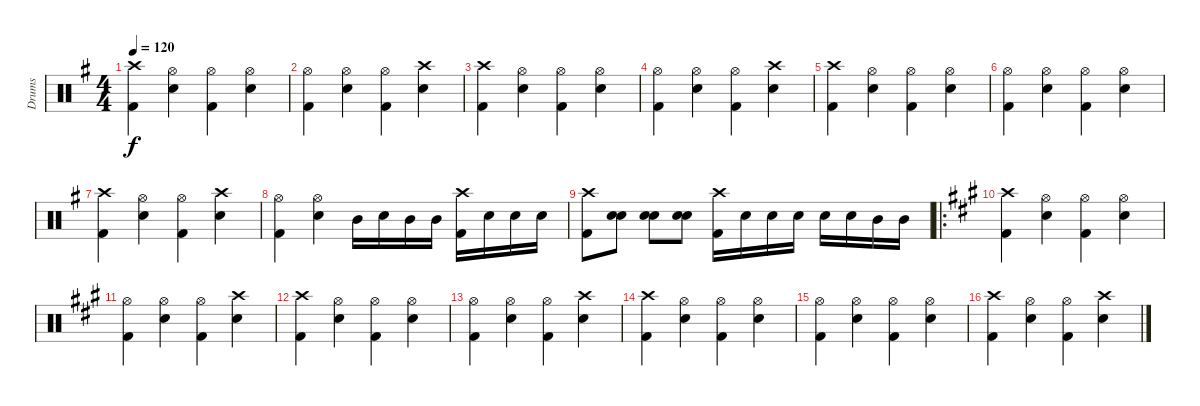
\track ("Drums" "Drums") {instrument percussion}
\staff {score}
\articulation defaults
\ts (4 4)
\tempo 120
\clef neutral
\ks g
("Crash high (hit)" "Kick (hit) 2").4{dy f} ("Hi-Hat (open)" "Snare (hit) 2").4 ("Hi-Hat (open)" "Kick (hit) 2").4 ("Hi-Hat (open)" "Snare (hit) 2").4 |
("Hi-Hat (open)" "Kick (hit) 2").4 ("Hi-Hat (open)" "Snare (hit) 2").4 ("Hi-Hat (open)" "Kick (hit) 2").4 ("Crash high (hit)" "Snare (hit) 2").4 |
("Crash high (hit)" "Kick (hit) 2").4 ("Hi-Hat (open)" "Snare (hit) 2").4 ("Hi-Hat (open)" "Kick (hit) 2").4 ("Hi-Hat (open)" "Snare (hit) 2").4 |
("Hi-Hat (open)" "Kick (hit) 2").4 ("Hi-Hat (open)" "Snare (hit) 2").4 ("Hi-Hat (open)" "Kick (hit) 2").4 ("Crash high (hit)" "Snare (hit) 2").4 |
("Crash high (hit)" "Kick (hit) 2").4 ("Hi-Hat (open)" "Snare (hit) 2").4 ("Hi-Hat (open)" "Kick (hit) 2").4 ("Hi-Hat (open)" "Snare (hit) 2").4 |
("Hi-Hat (open)" "Kick (hit) 2").4 ("Hi-Hat (open)" "Snare (hit) 2").4 ("Hi-Hat (open)" "Kick (hit) 2").4 ("Hi-Hat (open)" "Snare (hit) 2").4 |
("Crash high (hit)" "Kick (hit) 2").4 ("Hi-Hat (open)" "Snare (hit) 2").4 ("Hi-Hat (open)" "Kick (hit) 2").4 ("Crash high (hit)" "Snare (hit) 2").4 |
("Hi-Hat (open)" "Kick (hit) 2").4 ("Hi-Hat (open)" "Snare (hit) 2").4 "Mid Tom (hit)".16 "Snare (hit) 2".16 "Mid Tom (hit)".16 "Mid Tom (hit)".16 ("Crash high (hit)" "Kick (hit) 2").16 "Snare (hit) 2".16 "Snare (hit) 2".16 "Snare (hit) 2".16 |
("Crash high (hit)" "Kick (hit) 2").8 ("Snare (hit) 2" "Snare (hit) 2").8 ("Snare (hit) 2" "Snare (hit) 2").8 ("Snare (hit) 2" "Snare (hit) 2").8 ("Crash high (hit)" "Kick (hit) 2").16 "Snare (hit) 2".16 "Snare (hit) 2".16 "Snare (hit) 2".16 "Snare (hit) 2".16 "Snare (hit) 2".16 "Mid Tom (hit)".16 "Mid Tom (hit)".16 |
\ro
\ks a
("Crash high (hit)" "Kick (hit) 2").4 ("Hi-Hat (open)" "Snare (hit) 2").4 ("Hi-Hat (open)" "Kick (hit) 2").4 ("Hi-Hat (open)" "Snare (hit) 2").4 |
("Hi-Hat (open)" "Kick (hit) 2").4 ("Hi-Hat (open)" "Snare (hit) 2").4 ("Hi-Hat (open)" "Kick (hit) 2").4 ("Crash high (hit)" "Snare (hit) 2").4 |
("Crash high (hit)" "Kick (hit) 2").4 ("Hi-Hat (open)" "Snare (hit) 2").4 ("Hi-Hat (open)" "Kick (hit) 2").4 ("Hi-Hat (open)" "Snare (hit) 2").4 |
("Hi-Hat (open)" "Kick (hit) 2").4 ("Hi-Hat (open)" "Snare (hit) 2").4 ("Hi-Hat (open)" "Kick (hit) 2").4 ("Crash high (hit)" "Snare (hit) 2").4 |
("Crash high (hit)" "Kick (hit) 2").4 ("Hi-Hat (open)" "Snare (hit) 2").4 ("Hi-Hat (open)" "Kick (hit) 2").4 ("Hi-Hat (open)" "Snare (hit) 2").4 |
("Hi-Hat (open)" "Kick (hit) 2").4 ("Hi-Hat (open)" "Snare (hit) 2").4 ("Hi-Hat (open)" "Kick (hit) 2").4 ("Hi-Hat (open)" "Snare (hit) 2").4 |
("Crash high (hit)" "Kick (hit) 2").4 ("Hi-Hat (open)" "Snare (hit) 2").4 ("Hi-Hat (open)" "Kick (hit) 2").4 ("Crash high (hit)" "Snare (hit) 2").4
